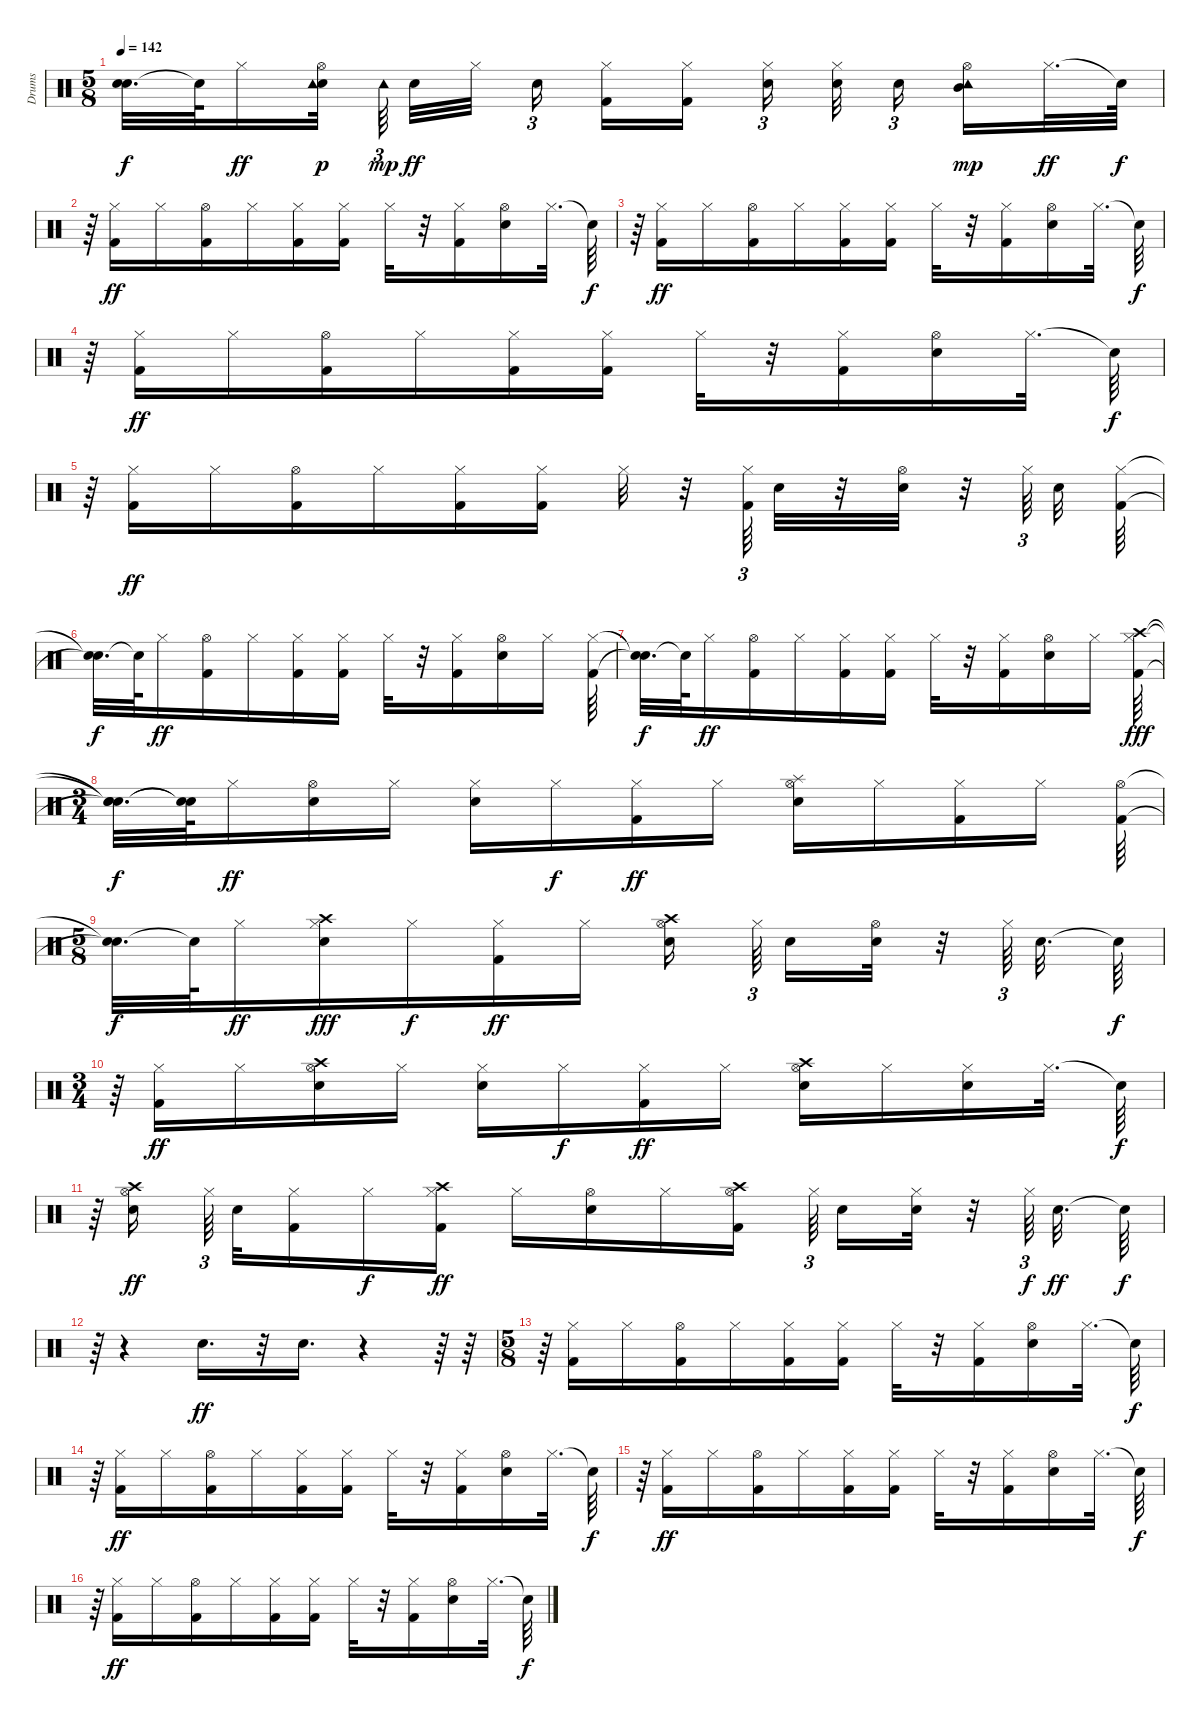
\track ("Drums                               " "Drums     ") {instrument percussion}
\staff {score}
\articulation defaults
\ts (5 8)
\tempo 142
\clef neutral
\ks c
("Snare (hit)"{t} "Snare (hit)"{t}).32{d dy f} "Snare (hit)"{t}.64 "Hi-Hat (closed)".16{dy ff} ("Snare (hit) 2" "Hi-Hat (open)" "Tambourine (hit)").32{dy p} "Tambourine (hit)".64{tu (3 2) dy mp} "Snare (hit) 2".32{dy ff} "Hi-Hat (closed)".32 "Snare (hit) 2".16{tu (3 2)} ("Hi-Hat (closed)" "Kick (hit) 2").16 ("Kick (hit) 2" "Hi-Hat (closed)").16 ("Hi-Hat (closed)" "Snare (hit) 2").16{tu (3 2)} ("Snare (hit) 2" "Hi-Hat (closed)").32 "Snare (hit) 2".16{tu (3 2)} ("Mid Tom (hit)" "Hi-Hat (open)" "Tambourine (hit)").16{dy mp} "Hi-Hat (closed)".32{d dy ff} "Snare (hit)"{t}.64{dy f} |
r.64 ("Kick (hit) 2" "Hi-Hat (closed)").16{dy ff} "Hi-Hat (closed)".16 ("Hi-Hat (open)" "Kick (hit) 2").16 "Hi-Hat (closed)".16 ("Hi-Hat (closed)" "Kick (hit) 2").16 ("Kick (hit) 2" "Hi-Hat (closed)").16 "Hi-Hat (closed)".32 r.32 ("Kick (hit) 2" "Hi-Hat (closed)").16 ("Hi-Hat (open)" "Snare (hit) 2").16 "Hi-Hat (closed)".32{d} "Snare (hit)"{t}.64{dy f} |
r.64 ("Hi-Hat (closed)" "Kick (hit) 2").16{dy ff} "Hi-Hat (closed)".16 ("Kick (hit) 2" "Hi-Hat (open)").16 "Hi-Hat (closed)".16 ("Kick (hit) 2" "Hi-Hat (closed)").16 ("Kick (hit) 2" "Hi-Hat (closed)").16 "Hi-Hat (closed)".32 r.32 ("Kick (hit) 2" "Hi-Hat (closed)").16 ("Snare (hit) 2" "Hi-Hat (open)").16 "Hi-Hat (closed)".32{d} "Snare (hit)"{t}.64{dy f} |
r.64 ("Hi-Hat (closed)" "Kick (hit) 2").16{dy ff} "Hi-Hat (closed)".16 ("Hi-Hat (open)" "Kick (hit) 2").16 "Hi-Hat (closed)".16 ("Kick (hit) 2" "Hi-Hat (closed)").16 ("Kick (hit) 2" "Hi-Hat (closed)").16 "Hi-Hat (closed)".32 r.32 ("Kick (hit) 2" "Hi-Hat (closed)").16 ("Hi-Hat (open)" "Snare (hit) 2").16 "Hi-Hat (closed)".32{d} "Snare (hit)"{t}.64{dy f} |
r.64 ("Kick (hit) 2" "Hi-Hat (closed)").16{dy ff} "Hi-Hat (closed)".16 ("Hi-Hat (open)" "Kick (hit) 2").16 "Hi-Hat (closed)".16 ("Hi-Hat (closed)" "Kick (hit) 2").16 ("Kick (hit) 2" "Hi-Hat (closed)").16 "Hi-Hat (closed)".32 r.32 ("Kick (hit) 2" "Hi-Hat (closed)").64{tu (3 2)} "Snare (hit) 2".32 r.32 ("Hi-Hat (open)" "Snare (hit) 2").32 r.32 "Hi-Hat (closed)".64{tu (3 2)} "Snare (hit) 2".32 ("Hi-Hat (closed)" "Kick (hit) 2").64 |
("Snare (hit)"{t} "Snare (hit)"{t}).32{d dy f} "Snare (hit)"{t}.64 "Hi-Hat (closed)".16{dy ff} ("Hi-Hat (open)" "Kick (hit) 2").16 "Hi-Hat (closed)".16 ("Kick (hit) 2" "Hi-Hat (closed)").16 ("Kick (hit) 2" "Hi-Hat (closed)").16 "Hi-Hat (closed)".32 r.32 ("Kick (hit) 2" "Hi-Hat (closed)").16 ("Snare (hit) 2" "Hi-Hat (open)").16 "Hi-Hat (closed)".16 ("Hi-Hat (closed)" "Kick (hit) 2").64 |
("Snare (hit)"{t} "Snare (hit)"{t}).32{d dy f} "Snare (hit)"{t}.64 "Hi-Hat (closed)".16{dy ff} ("Kick (hit) 2" "Hi-Hat (open)").16 "Hi-Hat (closed)".16 ("Hi-Hat (closed)" "Kick (hit) 2").16 ("Kick (hit) 2" "Hi-Hat (closed)").16 "Hi-Hat (closed)".32 r.32 ("Kick (hit) 2" "Hi-Hat (closed)").16 ("Hi-Hat (open)" "Snare (hit) 2").16 "Hi-Hat (closed)".16 ("Kick (hit) 2" "Hi-Hat (closed)" "Crash high (hit)").64{dy fff} |
\ts (3 4)
("Snare (hit)"{t} "Snare (hit)"{t} "Snare (hit)"{t}).32{d dy f} ("Snare (hit)"{t} "Snare (hit)"{t}).64 "Hi-Hat (closed)".16{dy ff} ("Snare (hit) 2" "Hi-Hat (open)").16 "Hi-Hat (closed)".16 ("Hi-Hat (closed)" "Snare (hit) 2").16 "Hi-Hat (closed)".16{dy f} ("Kick (hit) 2" "Hi-Hat (closed)").16{dy ff} "Hi-Hat (closed)".16 ("Snare (hit) 2" "Hi-Hat (open)" "Splash (hit)").16 "Hi-Hat (closed)".16 ("Hi-Hat (closed)" "Kick (hit) 2").16 "Hi-Hat (closed)".16 ("Kick (hit) 2" "Hi-Hat (open)").64 |
\ts (5 8)
("Snare (hit)"{t} "Snare (hit)"{t}).32{d dy f} "Snare (hit)"{t}.64 "Hi-Hat (closed)".16{dy ff} ("Hi-Hat (closed)" "Snare (hit) 2" "Crash high (hit)").16{dy fff} "Hi-Hat (closed)".16{dy f} ("Hi-Hat (closed)" "Kick (hit) 2").16{dy ff} "Hi-Hat (closed)".16 ("Hi-Hat (open)" "Snare (hit) 2" "Crash high (hit)").16 "Hi-Hat (closed)".64{tu (3 2)} "Snare (hit) 2".16 ("Snare (hit) 2" "Hi-Hat (open)").32 r.32 "Hi-Hat (closed)".64{tu (3 2)} "Snare (hit) 2".32{d} "Snare (hit)"{t}.64{dy f} |
\ts (3 4)
r.64 ("Kick (hit) 2" "Hi-Hat (closed)").16{dy ff} "Hi-Hat (closed)".16 ("Hi-Hat (open)" "Snare (hit) 2" "Crash high (hit)").16 "Hi-Hat (closed)".16 ("Hi-Hat (closed)" "Snare (hit) 2").16 "Hi-Hat (closed)".16{dy f} ("Kick (hit) 2" "Hi-Hat (closed)").16{dy ff} "Hi-Hat (closed)".16 ("Hi-Hat (open)" "Snare (hit) 2" "Crash high (hit)").16 "Hi-Hat (closed)".16 ("Snare (hit) 2" "Hi-Hat (closed)").16 "Hi-Hat (closed)".32{d} "Snare (hit)"{t}.64{dy f} |
r.64 ("Hi-Hat (open)" "Snare (hit) 2" "Crash high (hit)").16{dy ff} "Hi-Hat (closed)".64{tu (3 2)} "Snare (hit) 2".32 ("Kick (hit) 2" "Hi-Hat (closed)").16 "Hi-Hat (closed)".16{dy f} ("Hi-Hat (closed)" "Kick (hit) 2" "Crash high (hit)").16{dy ff} "Hi-Hat (closed)".16 ("Snare (hit) 2" "Hi-Hat (open)").16 "Hi-Hat (closed)".16 ("Kick (hit) 2" "Hi-Hat (open)" "Crash high (hit)").16 "Hi-Hat (closed)".64{tu (3 2)} "Snare (hit) 2".16 ("Snare (hit) 2" "Hi-Hat (closed)").32 r.32 "Hi-Hat (closed)".64{tu (3 2) dy f} "Snare (hit) 2".32{d dy ff} "Snare (hit)"{t}.64{dy f} |
r.64 r.4 "Snare (hit) 2".16{d dy ff} r.32 "Snare (hit) 2".16{d} r.4 r.64 r.64 |
\ts (5 8)
r.64 ("Kick (hit) 2" "Hi-Hat (closed)").16 "Hi-Hat (closed)".16 ("Hi-Hat (open)" "Kick (hit) 2").16 "Hi-Hat (closed)".16 ("Hi-Hat (closed)" "Kick (hit) 2").16 ("Kick (hit) 2" "Hi-Hat (closed)").16 "Hi-Hat (closed)".32 r.32 ("Kick (hit) 2" "Hi-Hat (closed)").16 ("Hi-Hat (open)" "Snare (hit) 2").16 "Hi-Hat (closed)".32{d} "Snare (hit)"{t}.64{dy f} |
r.64 ("Kick (hit) 2" "Hi-Hat (closed)").16{dy ff} "Hi-Hat (closed)".16 ("Hi-Hat (open)" "Kick (hit) 2").16 "Hi-Hat (closed)".16 ("Hi-Hat (closed)" "Kick (hit) 2").16 ("Kick (hit) 2" "Hi-Hat (closed)").16 "Hi-Hat (closed)".32 r.32 ("Kick (hit) 2" "Hi-Hat (closed)").16 ("Hi-Hat (open)" "Snare (hit) 2").16 "Hi-Hat (closed)".32{d} "Snare (hit)"{t}.64{dy f} |
r.64 ("Hi-Hat (closed)" "Kick (hit) 2").16{dy ff} "Hi-Hat (closed)".16 ("Hi-Hat (open)" "Kick (hit) 2").16 "Hi-Hat (closed)".16 ("Kick (hit) 2" "Hi-Hat (closed)").16 ("Kick (hit) 2" "Hi-Hat (closed)").16 "Hi-Hat (closed)".32 r.32 ("Kick (hit) 2" "Hi-Hat (closed)").16 ("Snare (hit) 2" "Hi-Hat (open)").16 "Hi-Hat (closed)".32{d} "Snare (hit)"{t}.64{dy f} |
r.64 ("Hi-Hat (closed)" "Kick (hit) 2").16{dy ff} "Hi-Hat (closed)".16 ("Kick (hit) 2" "Hi-Hat (open)").16 "Hi-Hat (closed)".16 ("Kick (hit) 2" "Hi-Hat (closed)").16 ("Kick (hit) 2" "Hi-Hat (closed)").16 "Hi-Hat (closed)".32 r.32 ("Kick (hit) 2" "Hi-Hat (closed)").16 ("Snare (hit) 2" "Hi-Hat (open)").16 "Hi-Hat (closed)".32{d} "Snare (hit)"{t}.64{dy f}
